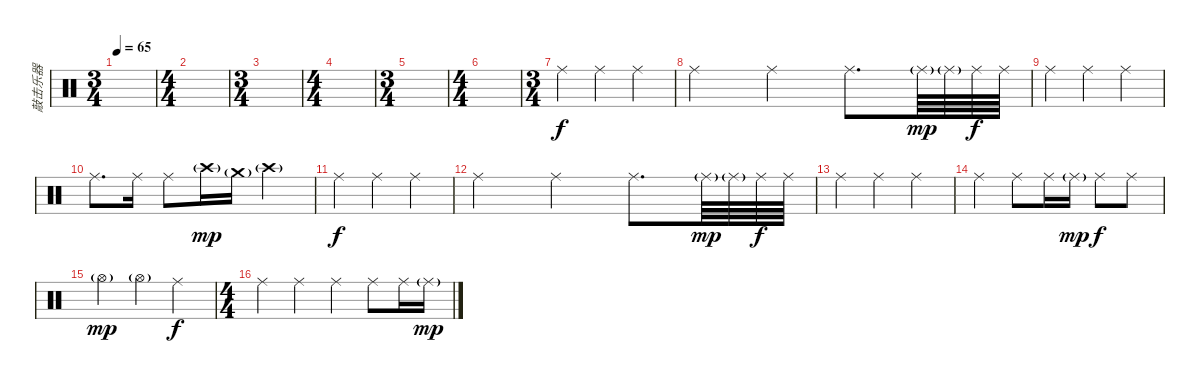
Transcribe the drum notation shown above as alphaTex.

\track ("敲击乐器" "敲击乐器") {instrument percussion}
\staff {score}
\articulation defaults
\ts (3 4)
\tempo 65
\clef neutral
\ks c
|
\ts (4 4)
|
\ts (3 4)
|
\ts (4 4)
|
\ts (3 4)
|
\ts (4 4)
|
\ts (3 4)
"Ride (middle)".4 "Ride (middle)".4 "Ride (middle)".4 |
"Ride (middle)".4 "Ride (middle)".4 "Ride (middle)".8{d} "Ride (middle)"{g}.64{dy mp} "Ride (middle)"{g}.64 "Ride (middle)".64{dy f} "Ride (middle)".64 |
"Ride (middle)".4 "Ride (middle)".4 "Ride (middle)".4 |
"Ride (middle)".8{d} "Ride (middle)".16 "Ride (middle)".8 "Crash high (hit)"{g}.16{dy mp} "Crash medium (hit)"{g}.16 "Crash high (hit)"{g}.4 |
"Ride (middle)".4{dy f} "Ride (middle)".4 "Ride (middle)".4 |
"Ride (middle)".4 "Ride (middle)".4 "Ride (middle)".8{d} "Ride (middle)"{g}.64{dy mp} "Ride (middle)"{g}.64 "Ride (middle)".64{dy f} "Ride (middle)".64 |
"Ride (middle)".4 "Ride (middle)".4 "Ride (middle)".4 |
"Ride (middle)".4 "Ride (middle)".8 "Ride (middle)".16 "Ride (middle)"{g}.16{dy mp} "Ride (middle)".8{dy f} "Ride (middle)".8 |
"Hi-Hat (open)"{g}.4{dy mp} "Hi-Hat (open)"{g}.4 "Ride (middle)".4{dy f} |
\ts (4 4)
"Ride (middle)".4 "Ride (middle)".4 "Ride (middle)".4 "Ride (middle)".8 "Ride (middle)".16 "Ride (middle)"{g}.16{dy mp}
